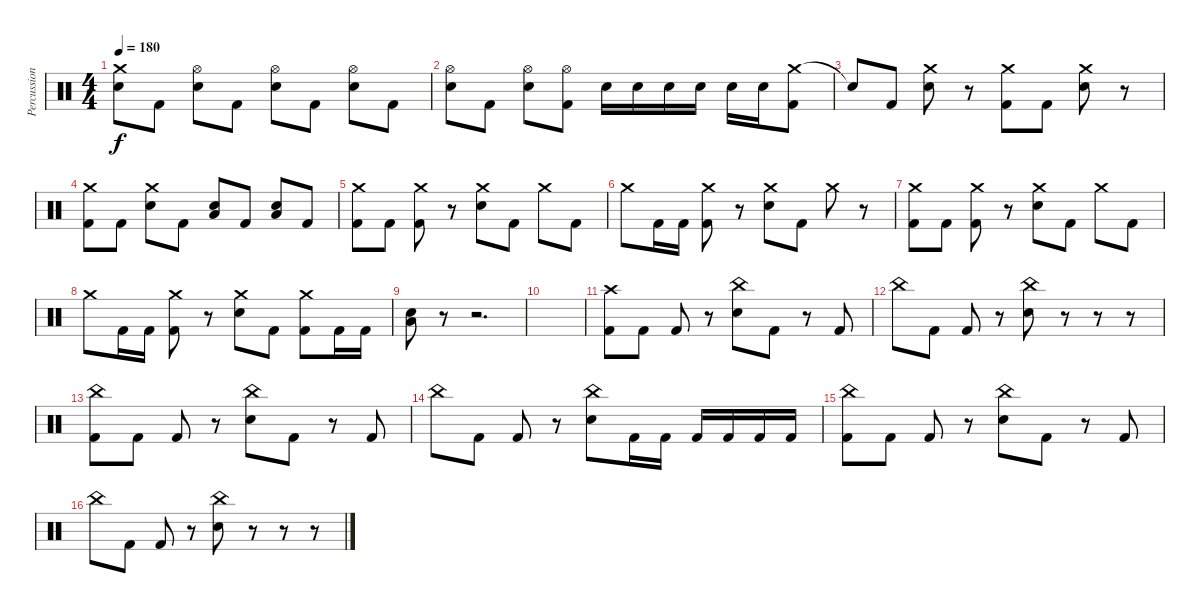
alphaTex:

\track ("Percussion" "Percussion") {instrument percussion}
\staff {score}
\articulation defaults
\ts (4 4)
\tempo 180
\clef neutral
\ks c
("Crash medium (hit)" "Snare (hit) 2").8{dy f} "Kick (hit) 2".8 ("Hi-Hat (open)" "Snare (hit) 2").8 "Kick (hit) 2".8 ("Hi-Hat (open)" "Snare (hit) 2").8 "Kick (hit) 2".8 ("Hi-Hat (open)" "Snare (hit) 2").8 "Kick (hit) 2".8 |
("Hi-Hat (open)" "Snare (hit) 2").8 "Kick (hit) 2".8 ("Hi-Hat (open)" "Snare (hit) 2").8 ("Hi-Hat (open)" "Kick (hit) 2").8 "Snare (hit) 2".16 "Snare (hit) 2".16 "Snare (hit) 2".16 "Snare (hit) 2".16 "Snare (hit) 2".16 "Snare (hit) 2".16 ("Crash medium (hit)" "Kick (hit) 2").8 |
"Snare (hit)"{t}.8 "Kick (hit) 2".8 ("Crash medium (hit)" "Snare (hit) 2").8 r.8 ("Crash medium (hit)" "Kick (hit) 2").8 "Kick (hit) 2".8 ("Crash medium (hit)" "Snare (hit) 2").8 r.8 |
("Crash medium (hit)" "Kick (hit) 2").8 "Kick (hit) 2".8 ("Crash medium (hit)" "Snare (hit) 2").8 "Kick (hit) 2".8 ("Low Floor Tom (hit)" "Snare (hit) 2").8 "Kick (hit) 2".8 ("Low Floor Tom (hit)" "Snare (hit) 2").8 "Kick (hit) 2".8 |
("Crash medium (hit)" "Kick (hit) 2").8 "Kick (hit) 2".8 ("Crash medium (hit)" "Kick (hit) 2").8 r.8 ("Crash medium (hit)" "Snare (hit) 2").8 "Kick (hit) 2".8 "Crash medium (hit)".8 "Kick (hit) 2".8 |
"Crash medium (hit)".8 "Kick (hit) 2".16 "Kick (hit) 2".16 ("Crash medium (hit)" "Kick (hit) 2").8 r.8 ("Crash medium (hit)" "Snare (hit) 2").8 "Kick (hit) 2".8 "Crash medium (hit)".8 r.8 |
("Crash medium (hit)" "Kick (hit) 2").8 "Kick (hit) 2".8 ("Crash medium (hit)" "Kick (hit) 2").8 r.8 ("Crash medium (hit)" "Snare (hit) 2").8 "Kick (hit) 2".8 "Crash medium (hit)".8 "Kick (hit) 2".8 |
"Crash medium (hit)".8 "Kick (hit) 2".16 "Kick (hit) 2".16 ("Crash medium (hit)" "Kick (hit) 2").8 r.8 ("Crash medium (hit)" "Snare (hit) 2").8 "Kick (hit) 2".8 ("Crash medium (hit)" "Kick (hit) 2").8 "Kick (hit) 2".16 "Kick (hit) 2".16 |
("Low Floor Tom (hit)" "Snare (hit) 2").8 r.8 r.2{d} |
|
("Crash high (hit)" "Kick (hit) 2").8 "Kick (hit) 2".8 "Kick (hit) 2".8 r.8 ("China (hit)" "Snare (hit) 2").8 "Kick (hit) 2".8 r.8 "Kick (hit) 2".8 |
"China (hit)".8 "Kick (hit) 2".8 "Kick (hit) 2".8 r.8 ("China (hit)" "Snare (hit) 2").8 r.8 r.8 r.8 |
("China (hit)" "Kick (hit) 2").8 "Kick (hit) 2".8 "Kick (hit) 2".8 r.8 ("China (hit)" "Snare (hit) 2").8 "Kick (hit) 2".8 r.8 "Kick (hit) 2".8 |
"China (hit)".8 "Kick (hit) 2".8 "Kick (hit) 2".8 r.8 ("China (hit)" "Snare (hit) 2").8 "Kick (hit) 2".16 "Kick (hit) 2".16 "Kick (hit) 2".16 "Kick (hit) 2".16 "Kick (hit) 2".16 "Kick (hit) 2".16 |
("China (hit)" "Kick (hit) 2").8 "Kick (hit) 2".8 "Kick (hit) 2".8 r.8 ("China (hit)" "Snare (hit) 2").8 "Kick (hit) 2".8 r.8 "Kick (hit) 2".8 |
"China (hit)".8 "Kick (hit) 2".8 "Kick (hit) 2".8 r.8 ("China (hit)" "Snare (hit) 2").8 r.8 r.8 r.8
